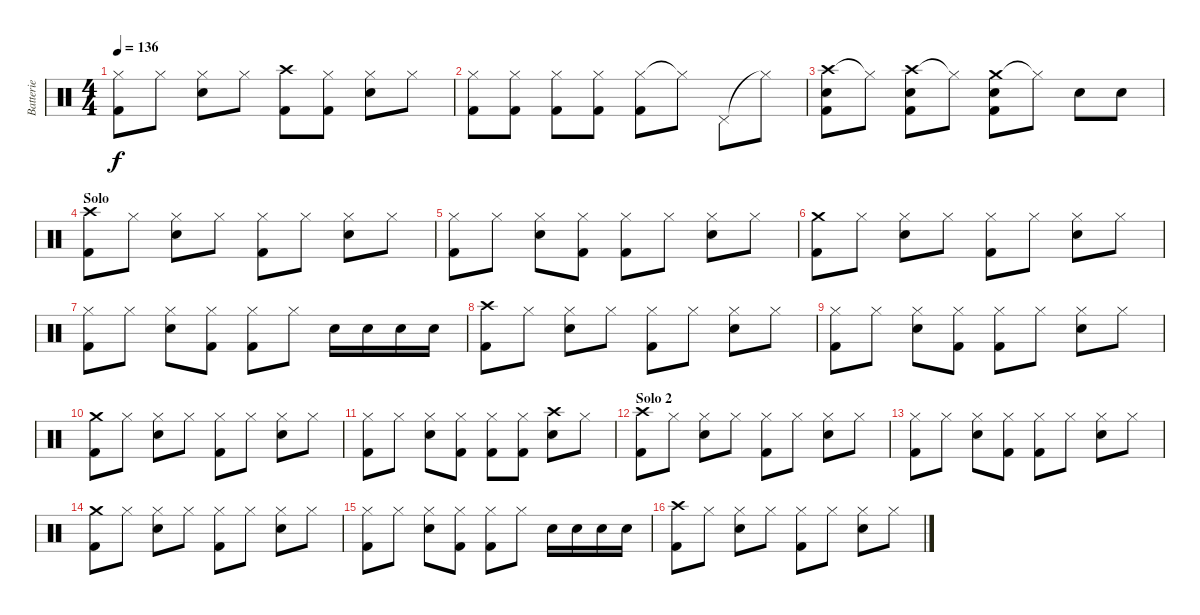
\track ("Batterie" "Batterie") {instrument percussion}
\staff {score}
\articulation defaults
\ts (4 4)
\tempo 136
\clef neutral
\ks c
("Hi-Hat (closed)" "Kick (hit) 2").8{dy f} "Hi-Hat (closed)".8 ("Hi-Hat (closed)" "Snare (hit) 2").8 "Hi-Hat (closed)".8 ("Crash high (hit)" "Kick (hit) 2").8 ("Hi-Hat (closed)" "Kick (hit) 2").8 ("Hi-Hat (closed)" "Snare (hit) 2").8 "Hi-Hat (closed)".8 |
("Hi-Hat (closed)" "Kick (hit) 2").8 ("Hi-Hat (closed)" "Kick (hit) 2").8 ("Hi-Hat (closed)" "Kick (hit) 2").8 ("Hi-Hat (closed)" "Kick (hit) 2").8 ("Hi-Hat (closed)" "Kick (hit) 2").8 "Hi-Hat (closed)"{t}.8 "Pedal Hi-Hat (hit)".8 "Hi-Hat (closed)"{t}.8 |
("Crash high (hit)" "Snare (hit) 2" "Kick (hit) 2").8 "Hi-Hat (closed)"{t}.8 ("Crash high (hit)" "Snare (hit) 2" "Kick (hit) 2").8 "Hi-Hat (closed)"{t}.8 ("Crash medium (hit)" "Snare (hit) 2" "Kick (hit) 2").8 "Hi-Hat (closed)"{t}.8 "Snare (hit) 2".8 "Snare (hit) 2".8 |
\section ("" "Solo")
("Crash high (hit)" "Kick (hit) 2").8 "Hi-Hat (closed)".8 ("Hi-Hat (closed)" "Snare (hit) 2").8 "Hi-Hat (closed)".8 ("Hi-Hat (closed)" "Kick (hit) 2").8 "Hi-Hat (closed)".8 ("Hi-Hat (closed)" "Snare (hit) 2").8 "Hi-Hat (closed)".8 |
("Hi-Hat (closed)" "Kick (hit) 2").8 "Hi-Hat (closed)".8 ("Hi-Hat (closed)" "Snare (hit) 2").8 ("Hi-Hat (closed)" "Kick (hit) 2").8 ("Hi-Hat (closed)" "Kick (hit) 2").8 "Hi-Hat (closed)".8 ("Hi-Hat (closed)" "Snare (hit) 2").8 "Hi-Hat (closed)".8 |
("Crash medium (hit)" "Kick (hit) 2").8 "Hi-Hat (closed)".8 ("Hi-Hat (closed)" "Snare (hit) 2").8 "Hi-Hat (closed)".8 ("Hi-Hat (closed)" "Kick (hit) 2").8 "Hi-Hat (closed)".8 ("Hi-Hat (closed)" "Snare (hit) 2").8 "Hi-Hat (closed)".8 |
("Hi-Hat (closed)" "Kick (hit) 2").8 "Hi-Hat (closed)".8 ("Hi-Hat (closed)" "Snare (hit) 2").8 ("Hi-Hat (closed)" "Kick (hit) 2").8 ("Hi-Hat (closed)" "Kick (hit) 2").8 "Hi-Hat (closed)".8 "Snare (hit) 2".16 "Snare (hit) 2".16 "Snare (hit) 2".16 "Snare (hit) 2".16 |
("Crash high (hit)" "Kick (hit) 2").8 "Hi-Hat (closed)".8 ("Hi-Hat (closed)" "Snare (hit) 2").8 "Hi-Hat (closed)".8 ("Hi-Hat (closed)" "Kick (hit) 2").8 "Hi-Hat (closed)".8 ("Hi-Hat (closed)" "Snare (hit) 2").8 "Hi-Hat (closed)".8 |
("Hi-Hat (closed)" "Kick (hit) 2").8 "Hi-Hat (closed)".8 ("Hi-Hat (closed)" "Snare (hit) 2").8 ("Hi-Hat (closed)" "Kick (hit) 2").8 ("Hi-Hat (closed)" "Kick (hit) 2").8 "Hi-Hat (closed)".8 ("Hi-Hat (closed)" "Snare (hit) 2").8 "Hi-Hat (closed)".8 |
("Crash medium (hit)" "Kick (hit) 2").8 "Hi-Hat (closed)".8 ("Hi-Hat (closed)" "Snare (hit) 2").8 "Hi-Hat (closed)".8 ("Hi-Hat (closed)" "Kick (hit) 2").8 "Hi-Hat (closed)".8 ("Hi-Hat (closed)" "Snare (hit) 2").8 "Hi-Hat (closed)".8 |
("Hi-Hat (closed)" "Kick (hit) 2").8 "Hi-Hat (closed)".8 ("Hi-Hat (closed)" "Snare (hit) 2").8 ("Hi-Hat (closed)" "Kick (hit) 2").8 ("Hi-Hat (closed)" "Kick (hit) 2").8 ("Hi-Hat (closed)" "Kick (hit) 2").8 ("Crash high (hit)" "Snare (hit) 2").8 "Hi-Hat (closed)".8 |
\section ("" "Solo 2")
("Crash high (hit)" "Kick (hit) 2").8 "Hi-Hat (closed)".8 ("Hi-Hat (closed)" "Snare (hit) 2").8 "Hi-Hat (closed)".8 ("Hi-Hat (closed)" "Kick (hit) 2").8 "Hi-Hat (closed)".8 ("Hi-Hat (closed)" "Snare (hit) 2").8 "Hi-Hat (closed)".8 |
("Hi-Hat (closed)" "Kick (hit) 2").8 "Hi-Hat (closed)".8 ("Hi-Hat (closed)" "Snare (hit) 2").8 ("Hi-Hat (closed)" "Kick (hit) 2").8 ("Hi-Hat (closed)" "Kick (hit) 2").8 "Hi-Hat (closed)".8 ("Hi-Hat (closed)" "Snare (hit) 2").8 "Hi-Hat (closed)".8 |
("Crash medium (hit)" "Kick (hit) 2").8 "Hi-Hat (closed)".8 ("Hi-Hat (closed)" "Snare (hit) 2").8 "Hi-Hat (closed)".8 ("Hi-Hat (closed)" "Kick (hit) 2").8 "Hi-Hat (closed)".8 ("Hi-Hat (closed)" "Snare (hit) 2").8 "Hi-Hat (closed)".8 |
("Hi-Hat (closed)" "Kick (hit) 2").8 "Hi-Hat (closed)".8 ("Hi-Hat (closed)" "Snare (hit) 2").8 ("Hi-Hat (closed)" "Kick (hit) 2").8 ("Hi-Hat (closed)" "Kick (hit) 2").8 "Hi-Hat (closed)".8 "Snare (hit) 2".16 "Snare (hit) 2".16 "Snare (hit) 2".16 "Snare (hit) 2".16 |
("Crash high (hit)" "Kick (hit) 2").8 "Hi-Hat (closed)".8 ("Hi-Hat (closed)" "Snare (hit) 2").8 "Hi-Hat (closed)".8 ("Hi-Hat (closed)" "Kick (hit) 2").8 "Hi-Hat (closed)".8 ("Hi-Hat (closed)" "Snare (hit) 2").8 "Hi-Hat (closed)".8
